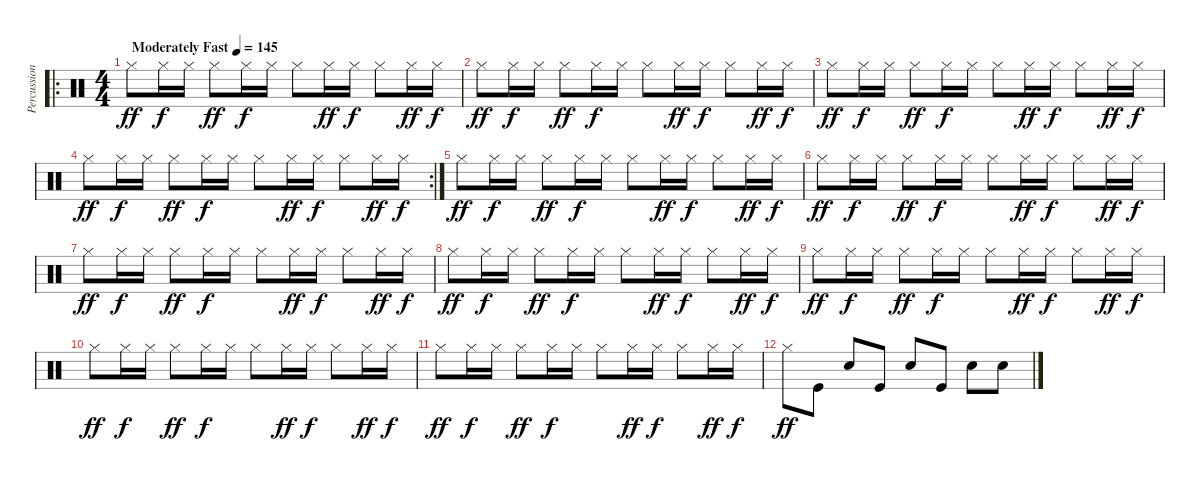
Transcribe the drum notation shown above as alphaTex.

\track ("Percussion" "Percussion") {instrument percussion}
\staff {score}
\articulation defaults
\ro
\ts (4 4)
\tempo (145 "Moderately Fast")
\clef neutral
\ks c "Hi-Hat (closed)".8{dy ff} "Hi-Hat (closed)".16{dy f} "Hi-Hat (closed)".16 "Hi-Hat (closed)".8{dy ff} "Hi-Hat (closed)".16{dy f} "Hi-Hat (closed)".16 "Hi-Hat (closed)".8 "Hi-Hat (closed)".16{dy ff} "Hi-Hat (closed)".16{dy f} "Hi-Hat (closed)".8 "Hi-Hat (closed)".16{dy ff} "Hi-Hat (closed)".16{dy f}
|
"Hi-Hat (closed)".8{dy ff} "Hi-Hat (closed)".16{dy f} "Hi-Hat (closed)".16 "Hi-Hat (closed)".8{dy ff} "Hi-Hat (closed)".16{dy f} "Hi-Hat (closed)".16 "Hi-Hat (closed)".8 "Hi-Hat (closed)".16{dy ff} "Hi-Hat (closed)".16{dy f} "Hi-Hat (closed)".8 "Hi-Hat (closed)".16{dy ff} "Hi-Hat (closed)".16{dy f} |
"Hi-Hat (closed)".8{dy ff} "Hi-Hat (closed)".16{dy f} "Hi-Hat (closed)".16 "Hi-Hat (closed)".8{dy ff} "Hi-Hat (closed)".16{dy f} "Hi-Hat (closed)".16 "Hi-Hat (closed)".8 "Hi-Hat (closed)".16{dy ff} "Hi-Hat (closed)".16{dy f} "Hi-Hat (closed)".8 "Hi-Hat (closed)".16{dy ff} "Hi-Hat (closed)".16{dy f} |
\rc 2 "Hi-Hat (closed)".8{dy ff} "Hi-Hat (closed)".16{dy f} "Hi-Hat (closed)".16 "Hi-Hat (closed)".8{dy ff} "Hi-Hat (closed)".16{dy f} "Hi-Hat (closed)".16 "Hi-Hat (closed)".8 "Hi-Hat (closed)".16{dy ff} "Hi-Hat (closed)".16{dy f} "Hi-Hat (closed)".8 "Hi-Hat (closed)".16{dy ff} "Hi-Hat (closed)".16{dy f}
|
"Hi-Hat (closed)".8{dy ff} "Hi-Hat (closed)".16{dy f} "Hi-Hat (closed)".16 "Hi-Hat (closed)".8{dy ff} "Hi-Hat (closed)".16{dy f} "Hi-Hat (closed)".16 "Hi-Hat (closed)".8 "Hi-Hat (closed)".16{dy ff} "Hi-Hat (closed)".16{dy f} "Hi-Hat (closed)".8 "Hi-Hat (closed)".16{dy ff} "Hi-Hat (closed)".16{dy f} |
"Hi-Hat (closed)".8{dy ff} "Hi-Hat (closed)".16{dy f} "Hi-Hat (closed)".16 "Hi-Hat (closed)".8{dy ff} "Hi-Hat (closed)".16{dy f} "Hi-Hat (closed)".16 "Hi-Hat (closed)".8 "Hi-Hat (closed)".16{dy ff} "Hi-Hat (closed)".16{dy f} "Hi-Hat (closed)".8 "Hi-Hat (closed)".16{dy ff} "Hi-Hat (closed)".16{dy f} |
"Hi-Hat (closed)".8{dy ff} "Hi-Hat (closed)".16{dy f} "Hi-Hat (closed)".16 "Hi-Hat (closed)".8{dy ff} "Hi-Hat (closed)".16{dy f} "Hi-Hat (closed)".16 "Hi-Hat (closed)".8 "Hi-Hat (closed)".16{dy ff} "Hi-Hat (closed)".16{dy f} "Hi-Hat (closed)".8 "Hi-Hat (closed)".16{dy ff} "Hi-Hat (closed)".16{dy f} |
"Hi-Hat (closed)".8{dy ff} "Hi-Hat (closed)".16{dy f} "Hi-Hat (closed)".16 "Hi-Hat (closed)".8{dy ff} "Hi-Hat (closed)".16{dy f} "Hi-Hat (closed)".16 "Hi-Hat (closed)".8 "Hi-Hat (closed)".16{dy ff} "Hi-Hat (closed)".16{dy f} "Hi-Hat (closed)".8 "Hi-Hat (closed)".16{dy ff} "Hi-Hat (closed)".16{dy f} |
"Hi-Hat (closed)".8{dy ff} "Hi-Hat (closed)".16{dy f} "Hi-Hat (closed)".16 "Hi-Hat (closed)".8{dy ff} "Hi-Hat (closed)".16{dy f} "Hi-Hat (closed)".16 "Hi-Hat (closed)".8 "Hi-Hat (closed)".16{dy ff} "Hi-Hat (closed)".16{dy f} "Hi-Hat (closed)".8 "Hi-Hat (closed)".16{dy ff} "Hi-Hat (closed)".16{dy f} |
"Hi-Hat (closed)".8{dy ff} "Hi-Hat (closed)".16{dy f} "Hi-Hat (closed)".16 "Hi-Hat (closed)".8{dy ff} "Hi-Hat (closed)".16{dy f} "Hi-Hat (closed)".16 "Hi-Hat (closed)".8 "Hi-Hat (closed)".16{dy ff} "Hi-Hat (closed)".16{dy f} "Hi-Hat (closed)".8 "Hi-Hat (closed)".16{dy ff} "Hi-Hat (closed)".16{dy f} |
"Hi-Hat (closed)".8{dy ff} "Hi-Hat (closed)".16{dy f} "Hi-Hat (closed)".16 "Hi-Hat (closed)".8{dy ff} "Hi-Hat (closed)".16{dy f} "Hi-Hat (closed)".16 "Hi-Hat (closed)".8 "Hi-Hat (closed)".16{dy ff} "Hi-Hat (closed)".16{dy f} "Hi-Hat (closed)".8 "Hi-Hat (closed)".16{dy ff} "Hi-Hat (closed)".16{dy f} |
"Hi-Hat (closed)".8{dy ff} "Kick (hit)".8 "Electric Snare (hit)".8 "Kick (hit)".8 "Electric Snare (hit)".8 "Kick (hit)".8 "Electric Snare (hit)".8 "Electric Snare (hit)".8
